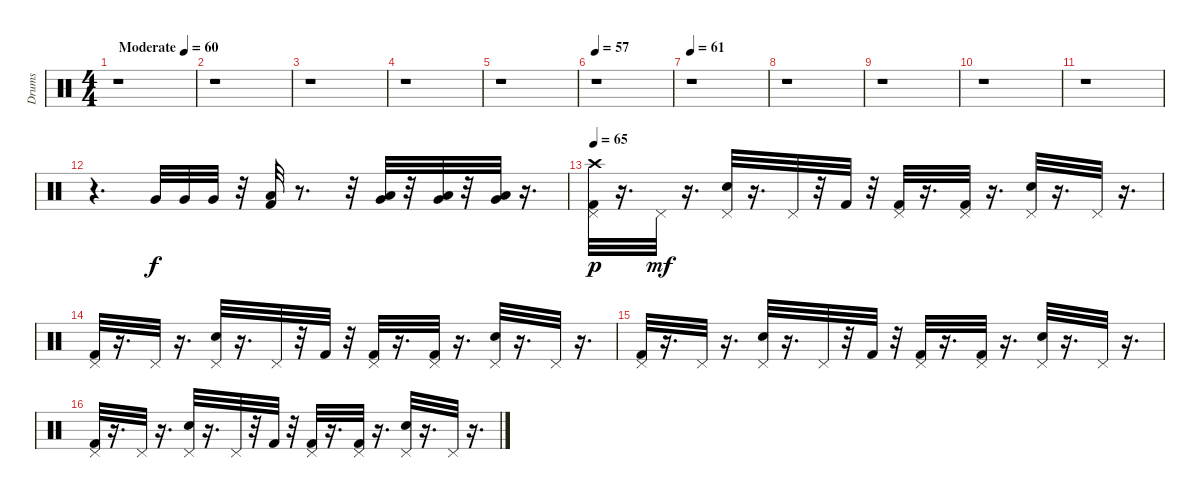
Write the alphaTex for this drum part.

\track ("Drums" "Drums") {instrument percussion}
\staff {score}
\articulation defaults
\ts (4 4)
\tempo (60 "Moderate")
\clef neutral
\ks c
r.1{dy f} |
r.1 |
r.1 |
r.1 |
r.1 |
\tempo 57
r.1 |
\tempo 61
r.1 |
r.1 |
r.1 |
r.1 |
r.1 |
r.4{d} "Very Low Tom (hit)".32 "Very Low Tom (hit)".32 "Very Low Tom (hit)".32 r.32 ("Low Floor Tom (hit)" "Kick (hit) 2").32 r.8{d} r.32 ("Very Low Tom (hit)" "Low Floor Tom (hit)").32 r.32 ("Very Low Tom (hit)" "Low Floor Tom (hit)").32 r.32 ("Very Low Tom (hit)" "Low Floor Tom (hit)").32 r.16{d} |
\tempo 65
("Pedal Hi-Hat (hit)" "Crash high (hit)" "Kick (hit) 2").32{dy p} r.16{d} "Pedal Hi-Hat (hit)".32{dy mf} r.16{d} ("Snare (hit) 2" "Pedal Hi-Hat (hit)").32 r.16{d} "Pedal Hi-Hat (hit)".32 r.32 "Kick (hit) 2".32 r.32 ("Pedal Hi-Hat (hit)" "Kick (hit) 2").32 r.16{d} ("Pedal Hi-Hat (hit)" "Kick (hit) 2").32 r.16{d} ("Pedal Hi-Hat (hit)" "Snare (hit) 2").32 r.16{d} "Pedal Hi-Hat (hit)".32 r.16{d} |
("Pedal Hi-Hat (hit)" "Kick (hit) 2").32 r.16{d} "Pedal Hi-Hat (hit)".32 r.16{d} ("Snare (hit) 2" "Pedal Hi-Hat (hit)").32 r.16{d} "Pedal Hi-Hat (hit)".32 r.32 "Kick (hit) 2".32 r.32 ("Pedal Hi-Hat (hit)" "Kick (hit) 2").32 r.16{d} ("Pedal Hi-Hat (hit)" "Kick (hit) 2").32 r.16{d} ("Pedal Hi-Hat (hit)" "Snare (hit) 2").32 r.16{d} "Pedal Hi-Hat (hit)".32 r.16{d} |
("Pedal Hi-Hat (hit)" "Kick (hit) 2").32 r.16{d} "Pedal Hi-Hat (hit)".32 r.16{d} ("Snare (hit) 2" "Pedal Hi-Hat (hit)").32 r.16{d} "Pedal Hi-Hat (hit)".32 r.32 "Kick (hit) 2".32 r.32 ("Pedal Hi-Hat (hit)" "Kick (hit) 2").32 r.16{d} ("Pedal Hi-Hat (hit)" "Kick (hit) 2").32 r.16{d} ("Pedal Hi-Hat (hit)" "Snare (hit) 2").32 r.16{d} "Pedal Hi-Hat (hit)".32 r.16{d} |
("Pedal Hi-Hat (hit)" "Kick (hit) 2").32 r.16{d} "Pedal Hi-Hat (hit)".32 r.16{d} ("Snare (hit) 2" "Pedal Hi-Hat (hit)").32 r.16{d} "Pedal Hi-Hat (hit)".32 r.32 "Kick (hit) 2".32 r.32 ("Pedal Hi-Hat (hit)" "Kick (hit) 2").32 r.16{d} ("Pedal Hi-Hat (hit)" "Kick (hit) 2").32 r.16{d} ("Pedal Hi-Hat (hit)" "Snare (hit) 2").32 r.16{d} "Pedal Hi-Hat (hit)".32 r.16{d}
